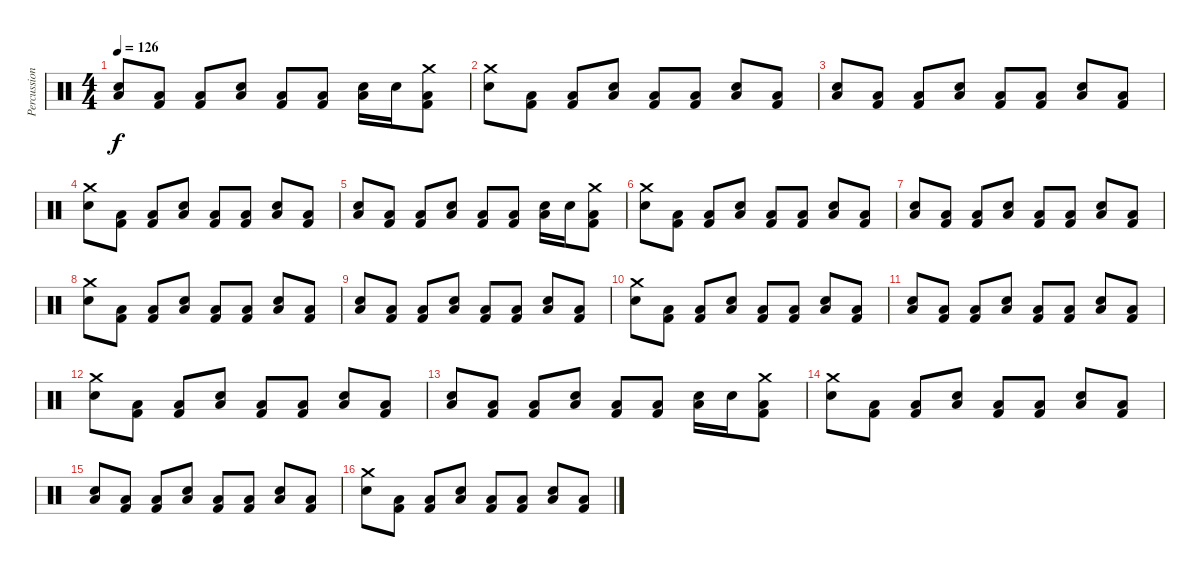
\track ("Percussion" "Percussion") {instrument percussion}
\staff {score}
\articulation defaults
\ts (4 4)
\tempo 126
\clef neutral
\ks c
("Snare (hit) 2" "Low Floor Tom (hit)").8{dy f} ("Low Floor Tom (hit)" "Kick (hit) 2").8 ("Low Floor Tom (hit)" "Kick (hit) 2").8 ("Snare (hit) 2" "Low Floor Tom (hit)").8 ("Low Floor Tom (hit)" "Kick (hit) 2").8 ("Low Floor Tom (hit)" "Kick (hit) 2").8 ("Snare (hit) 2" "Low Floor Tom (hit)").16 "Snare (hit) 2".16 ("Crash medium (hit)" "Low Floor Tom (hit)" "Kick (hit) 2").8 |
("Crash medium (hit)" "Snare (hit) 2").8 ("Low Floor Tom (hit)" "Kick (hit) 2").8 ("Low Floor Tom (hit)" "Kick (hit) 2").8 ("Snare (hit) 2" "Low Floor Tom (hit)").8 ("Low Floor Tom (hit)" "Kick (hit) 2").8 ("Low Floor Tom (hit)" "Kick (hit) 2").8 ("Snare (hit) 2" "Low Floor Tom (hit)").8 ("Low Floor Tom (hit)" "Kick (hit) 2").8 |
("Snare (hit) 2" "Low Floor Tom (hit)").8 ("Low Floor Tom (hit)" "Kick (hit) 2").8 ("Low Floor Tom (hit)" "Kick (hit) 2").8 ("Snare (hit) 2" "Low Floor Tom (hit)").8 ("Low Floor Tom (hit)" "Kick (hit) 2").8 ("Low Floor Tom (hit)" "Kick (hit) 2").8 ("Snare (hit) 2" "Low Floor Tom (hit)").8 ("Low Floor Tom (hit)" "Kick (hit) 2").8 |
("Crash medium (hit)" "Snare (hit) 2").8 ("Low Floor Tom (hit)" "Kick (hit) 2").8 ("Low Floor Tom (hit)" "Kick (hit) 2").8 ("Snare (hit) 2" "Low Floor Tom (hit)").8 ("Low Floor Tom (hit)" "Kick (hit) 2").8 ("Low Floor Tom (hit)" "Kick (hit) 2").8 ("Snare (hit) 2" "Low Floor Tom (hit)").8 ("Low Floor Tom (hit)" "Kick (hit) 2").8 |
("Snare (hit) 2" "Low Floor Tom (hit)").8 ("Low Floor Tom (hit)" "Kick (hit) 2").8 ("Low Floor Tom (hit)" "Kick (hit) 2").8 ("Snare (hit) 2" "Low Floor Tom (hit)").8 ("Low Floor Tom (hit)" "Kick (hit) 2").8 ("Low Floor Tom (hit)" "Kick (hit) 2").8 ("Snare (hit) 2" "Low Floor Tom (hit)").16 "Snare (hit) 2".16 ("Crash medium (hit)" "Low Floor Tom (hit)" "Kick (hit) 2").8 |
("Crash medium (hit)" "Snare (hit) 2").8 ("Low Floor Tom (hit)" "Kick (hit) 2").8 ("Low Floor Tom (hit)" "Kick (hit) 2").8 ("Snare (hit) 2" "Low Floor Tom (hit)").8 ("Low Floor Tom (hit)" "Kick (hit) 2").8 ("Low Floor Tom (hit)" "Kick (hit) 2").8 ("Snare (hit) 2" "Low Floor Tom (hit)").8 ("Low Floor Tom (hit)" "Kick (hit) 2").8 |
("Snare (hit) 2" "Low Floor Tom (hit)").8 ("Low Floor Tom (hit)" "Kick (hit) 2").8 ("Low Floor Tom (hit)" "Kick (hit) 2").8 ("Snare (hit) 2" "Low Floor Tom (hit)").8 ("Low Floor Tom (hit)" "Kick (hit) 2").8 ("Low Floor Tom (hit)" "Kick (hit) 2").8 ("Snare (hit) 2" "Low Floor Tom (hit)").8 ("Low Floor Tom (hit)" "Kick (hit) 2").8 |
("Crash medium (hit)" "Snare (hit) 2").8 ("Low Floor Tom (hit)" "Kick (hit) 2").8 ("Low Floor Tom (hit)" "Kick (hit) 2").8 ("Snare (hit) 2" "Low Floor Tom (hit)").8 ("Low Floor Tom (hit)" "Kick (hit) 2").8 ("Low Floor Tom (hit)" "Kick (hit) 2").8 ("Snare (hit) 2" "Low Floor Tom (hit)").8 ("Low Floor Tom (hit)" "Kick (hit) 2").8 |
("Snare (hit) 2" "Low Floor Tom (hit)").8 ("Low Floor Tom (hit)" "Kick (hit) 2").8 ("Low Floor Tom (hit)" "Kick (hit) 2").8 ("Snare (hit) 2" "Low Floor Tom (hit)").8 ("Low Floor Tom (hit)" "Kick (hit) 2").8 ("Low Floor Tom (hit)" "Kick (hit) 2").8 ("Snare (hit) 2" "Low Floor Tom (hit)").8 ("Low Floor Tom (hit)" "Kick (hit) 2").8 |
("Crash medium (hit)" "Snare (hit) 2").8 ("Low Floor Tom (hit)" "Kick (hit) 2").8 ("Low Floor Tom (hit)" "Kick (hit) 2").8 ("Snare (hit) 2" "Low Floor Tom (hit)").8 ("Low Floor Tom (hit)" "Kick (hit) 2").8 ("Low Floor Tom (hit)" "Kick (hit) 2").8 ("Snare (hit) 2" "Low Floor Tom (hit)").8 ("Low Floor Tom (hit)" "Kick (hit) 2").8 |
("Snare (hit) 2" "Low Floor Tom (hit)").8 ("Low Floor Tom (hit)" "Kick (hit) 2").8 ("Low Floor Tom (hit)" "Kick (hit) 2").8 ("Snare (hit) 2" "Low Floor Tom (hit)").8 ("Low Floor Tom (hit)" "Kick (hit) 2").8 ("Low Floor Tom (hit)" "Kick (hit) 2").8 ("Snare (hit) 2" "Low Floor Tom (hit)").8 ("Low Floor Tom (hit)" "Kick (hit) 2").8 |
("Crash medium (hit)" "Snare (hit) 2").8 ("Low Floor Tom (hit)" "Kick (hit) 2").8 ("Low Floor Tom (hit)" "Kick (hit) 2").8 ("Snare (hit) 2" "Low Floor Tom (hit)").8 ("Low Floor Tom (hit)" "Kick (hit) 2").8 ("Low Floor Tom (hit)" "Kick (hit) 2").8 ("Snare (hit) 2" "Low Floor Tom (hit)").8 ("Low Floor Tom (hit)" "Kick (hit) 2").8 |
("Snare (hit) 2" "Low Floor Tom (hit)").8 ("Low Floor Tom (hit)" "Kick (hit) 2").8 ("Low Floor Tom (hit)" "Kick (hit) 2").8 ("Snare (hit) 2" "Low Floor Tom (hit)").8 ("Low Floor Tom (hit)" "Kick (hit) 2").8 ("Low Floor Tom (hit)" "Kick (hit) 2").8 ("Snare (hit) 2" "Low Floor Tom (hit)").16 "Snare (hit) 2".16 ("Crash medium (hit)" "Low Floor Tom (hit)" "Kick (hit) 2").8 |
("Crash medium (hit)" "Snare (hit) 2").8 ("Low Floor Tom (hit)" "Kick (hit) 2").8 ("Low Floor Tom (hit)" "Kick (hit) 2").8 ("Snare (hit) 2" "Low Floor Tom (hit)").8 ("Low Floor Tom (hit)" "Kick (hit) 2").8 ("Low Floor Tom (hit)" "Kick (hit) 2").8 ("Snare (hit) 2" "Low Floor Tom (hit)").8 ("Low Floor Tom (hit)" "Kick (hit) 2").8 |
("Snare (hit) 2" "Low Floor Tom (hit)").8 ("Low Floor Tom (hit)" "Kick (hit) 2").8 ("Low Floor Tom (hit)" "Kick (hit) 2").8 ("Snare (hit) 2" "Low Floor Tom (hit)").8 ("Low Floor Tom (hit)" "Kick (hit) 2").8 ("Low Floor Tom (hit)" "Kick (hit) 2").8 ("Snare (hit) 2" "Low Floor Tom (hit)").8 ("Low Floor Tom (hit)" "Kick (hit) 2").8 |
("Crash medium (hit)" "Snare (hit) 2").8 ("Low Floor Tom (hit)" "Kick (hit) 2").8 ("Low Floor Tom (hit)" "Kick (hit) 2").8 ("Snare (hit) 2" "Low Floor Tom (hit)").8 ("Low Floor Tom (hit)" "Kick (hit) 2").8 ("Low Floor Tom (hit)" "Kick (hit) 2").8 ("Snare (hit) 2" "Low Floor Tom (hit)").8 ("Low Floor Tom (hit)" "Kick (hit) 2").8
